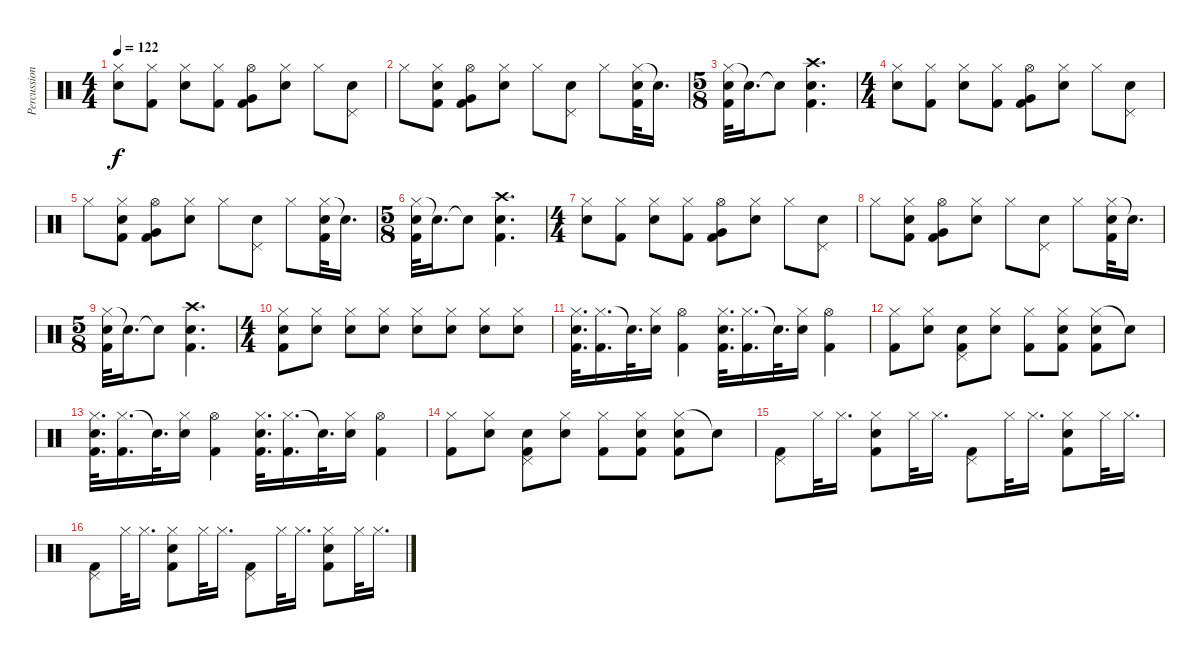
\track ("Percussion" "Percussion") {instrument percussion}
\staff {score}
\articulation defaults
\ts (4 4)
\tempo 122
\clef neutral
\ks c
("Hi-Hat (closed)" "Snare (hit) 2").8{dy f} ("Hi-Hat (closed)" "Kick (hit) 2").8 ("Hi-Hat (closed)" "Snare (hit) 2").8 ("Hi-Hat (closed)" "Kick (hit) 2").8 ("Hi-Hat (open)" "Very Low Tom (hit)" "Kick (hit) 2").8 ("Hi-Hat (closed)" "Snare (hit) 2").8 "Hi-Hat (closed)".8 ("Pedal Hi-Hat (hit)" "Snare (hit) 2").8 |
"Hi-Hat (closed)".8 ("Hi-Hat (closed)" "Snare (hit) 2" "Kick (hit) 2").8 ("Hi-Hat (open)" "Very Low Tom (hit)" "Kick (hit) 2").8 ("Hi-Hat (closed)" "Snare (hit) 2").8 "Hi-Hat (closed)".8 ("Pedal Hi-Hat (hit)" "Snare (hit) 2").8 "Hi-Hat (closed)".8 ("Hi-Hat (closed)" "Snare (hit) 2" "Kick (hit) 2").32 "Electric Snare (hit)"{t}.16{d} |
\ts (5 8)
("Hi-Hat (closed)" "Snare (hit) 2" "Kick (hit) 2").32 "Electric Snare (hit)"{t}.16{d} "Electric Snare (hit)"{t}.8 ("Crash high (hit)" "Snare (hit) 2" "Kick (hit) 2").4{d} |
\ts (4 4)
("Hi-Hat (closed)" "Snare (hit) 2").8 ("Hi-Hat (closed)" "Kick (hit) 2").8 ("Hi-Hat (closed)" "Snare (hit) 2").8 ("Hi-Hat (closed)" "Kick (hit) 2").8 ("Hi-Hat (open)" "Very Low Tom (hit)" "Kick (hit) 2").8 ("Hi-Hat (closed)" "Snare (hit) 2").8 "Hi-Hat (closed)".8 ("Pedal Hi-Hat (hit)" "Snare (hit) 2").8 |
"Hi-Hat (closed)".8 ("Hi-Hat (closed)" "Snare (hit) 2" "Kick (hit) 2").8 ("Hi-Hat (open)" "Very Low Tom (hit)" "Kick (hit) 2").8 ("Hi-Hat (closed)" "Snare (hit) 2").8 "Hi-Hat (closed)".8 ("Pedal Hi-Hat (hit)" "Snare (hit) 2").8 "Hi-Hat (closed)".8 ("Hi-Hat (closed)" "Snare (hit) 2" "Kick (hit) 2").32 "Electric Snare (hit)"{t}.16{d} |
\ts (5 8)
("Hi-Hat (closed)" "Snare (hit) 2" "Kick (hit) 2").32 "Electric Snare (hit)"{t}.16{d} "Electric Snare (hit)"{t}.8 ("Crash high (hit)" "Snare (hit) 2" "Kick (hit) 2").4{d} |
\ts (4 4)
("Hi-Hat (closed)" "Snare (hit) 2").8 ("Hi-Hat (closed)" "Kick (hit) 2").8 ("Hi-Hat (closed)" "Snare (hit) 2").8 ("Hi-Hat (closed)" "Kick (hit) 2").8 ("Hi-Hat (open)" "Very Low Tom (hit)" "Kick (hit) 2").8 ("Hi-Hat (closed)" "Snare (hit) 2").8 "Hi-Hat (closed)".8 ("Pedal Hi-Hat (hit)" "Snare (hit) 2").8 |
"Hi-Hat (closed)".8 ("Hi-Hat (closed)" "Snare (hit) 2" "Kick (hit) 2").8 ("Hi-Hat (open)" "Very Low Tom (hit)" "Kick (hit) 2").8 ("Hi-Hat (closed)" "Snare (hit) 2").8 "Hi-Hat (closed)".8 ("Pedal Hi-Hat (hit)" "Snare (hit) 2").8 "Hi-Hat (closed)".8 ("Hi-Hat (closed)" "Snare (hit) 2" "Kick (hit) 2").32 "Electric Snare (hit)"{t}.16{d} |
\ts (5 8)
("Hi-Hat (closed)" "Snare (hit) 2" "Kick (hit) 2").32 "Electric Snare (hit)"{t}.16{d} "Electric Snare (hit)"{t}.8 ("Crash high (hit)" "Snare (hit) 2" "Kick (hit) 2").4{d} |
\ts (4 4)
("Hi-Hat (closed)" "Snare (hit) 2" "Kick (hit) 2").8 ("Hi-Hat (closed)" "Snare (hit) 2").8 ("Hi-Hat (closed)" "Snare (hit) 2").8 ("Hi-Hat (closed)" "Snare (hit) 2").8 ("Hi-Hat (closed)" "Snare (hit) 2").8 ("Hi-Hat (closed)" "Snare (hit) 2").8 ("Hi-Hat (closed)" "Snare (hit) 2").8 ("Hi-Hat (closed)" "Snare (hit) 2").8 |
("Hi-Hat (closed)" "Snare (hit) 2" "Kick (hit) 2").32{d} ("Hi-Hat (closed)" "Kick (hit) 2").16{d} "Snare (hit)"{t}.32{d} ("Hi-Hat (closed)" "Snare (hit) 2").16 ("Hi-Hat (open)" "Kick (hit) 2").4 ("Hi-Hat (closed)" "Snare (hit) 2" "Kick (hit) 2").32{d} ("Hi-Hat (closed)" "Kick (hit) 2").16{d} "Snare (hit)"{t}.32{d} ("Hi-Hat (closed)" "Snare (hit) 2").16 ("Hi-Hat (open)" "Kick (hit) 2").4 |
("Hi-Hat (closed)" "Kick (hit) 2").8 ("Hi-Hat (closed)" "Snare (hit) 2").8 ("Pedal Hi-Hat (hit)" "Snare (hit) 2" "Kick (hit) 2").8 ("Hi-Hat (closed)" "Snare (hit) 2").8 ("Hi-Hat (closed)" "Kick (hit) 2").8 ("Hi-Hat (closed)" "Snare (hit) 2" "Kick (hit) 2").8 ("Hi-Hat (closed)" "Snare (hit) 2" "Kick (hit) 2").8 "Snare (hit)"{t}.8 |
("Hi-Hat (closed)" "Snare (hit) 2" "Kick (hit) 2").32{d} ("Hi-Hat (closed)" "Kick (hit) 2").16{d} "Snare (hit)"{t}.32{d} ("Hi-Hat (closed)" "Snare (hit) 2").16 ("Hi-Hat (open)" "Kick (hit) 2").4 ("Hi-Hat (closed)" "Snare (hit) 2" "Kick (hit) 2").32{d} ("Hi-Hat (closed)" "Kick (hit) 2").16{d} "Snare (hit)"{t}.32{d} ("Hi-Hat (closed)" "Snare (hit) 2").16 ("Hi-Hat (open)" "Kick (hit) 2").4 |
("Hi-Hat (closed)" "Kick (hit) 2").8 ("Hi-Hat (closed)" "Snare (hit) 2").8 ("Pedal Hi-Hat (hit)" "Snare (hit) 2" "Kick (hit) 2").8 ("Hi-Hat (closed)" "Snare (hit) 2").8 ("Hi-Hat (closed)" "Kick (hit) 2").8 ("Hi-Hat (closed)" "Snare (hit) 2" "Kick (hit) 2").8 ("Hi-Hat (closed)" "Snare (hit) 2" "Kick (hit) 2").8 "Snare (hit)"{t}.8 |
("Pedal Hi-Hat (hit)" "Kick (hit) 2").8 "Hi-Hat (closed)".32 "Hi-Hat (closed)".16{d} ("Hi-Hat (closed)" "Snare (hit) 2" "Kick (hit) 2").8 "Hi-Hat (closed)".32 "Hi-Hat (closed)".16{d} ("Pedal Hi-Hat (hit)" "Kick (hit) 2").8 "Hi-Hat (closed)".32 "Hi-Hat (closed)".16{d} ("Hi-Hat (closed)" "Snare (hit) 2" "Kick (hit) 2").8 "Hi-Hat (closed)".32 "Hi-Hat (closed)".16{d} |
("Pedal Hi-Hat (hit)" "Kick (hit) 2").8 "Hi-Hat (closed)".32 "Hi-Hat (closed)".16{d} ("Hi-Hat (closed)" "Snare (hit) 2" "Kick (hit) 2").8 "Hi-Hat (closed)".32 "Hi-Hat (closed)".16{d} ("Pedal Hi-Hat (hit)" "Kick (hit) 2").8 "Hi-Hat (closed)".32 "Hi-Hat (closed)".16{d} ("Hi-Hat (closed)" "Snare (hit) 2" "Kick (hit) 2").8 "Hi-Hat (closed)".32 "Hi-Hat (closed)".16{d}
